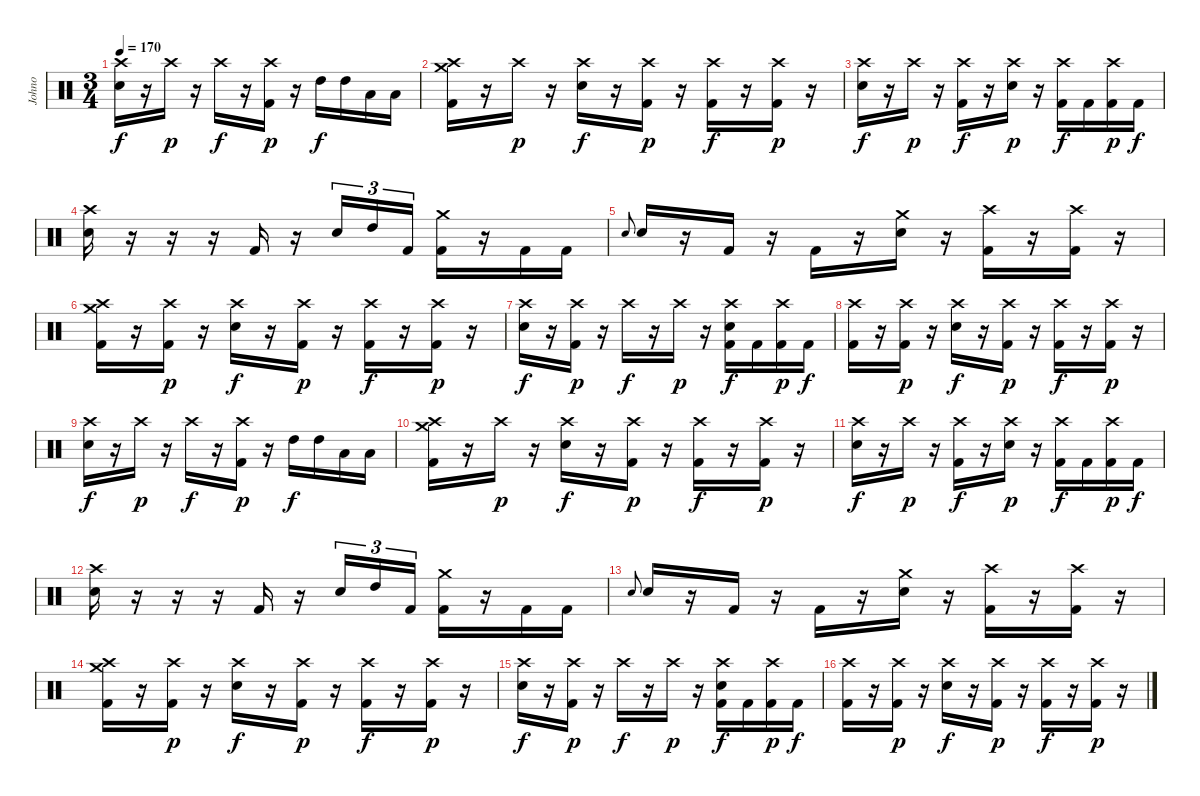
\track ("Johno" "Johno") {instrument percussion}
\staff {score}
\articulation defaults
\ts (3 4)
\tempo 170
\clef neutral
\ks c
("Crash high (hit)" "Electric Snare (hit)").16{dy f} r.16 "Crash high (hit)".16{dy p} r.16 "Crash high (hit)".16{dy f} r.16 ("Crash high (hit)" "Kick (hit) 2").16{dy p} r.16 "High Tom (hit)".16{dy f} "High Tom (hit)".16 "Low Floor Tom (hit)".16 "Low Floor Tom (hit)".16 |
("Crash medium (hit)" "Crash high (hit)" "Kick (hit) 2").16 r.16 "Crash high (hit)".16{dy p} r.16 ("Crash high (hit)" "Electric Snare (hit)").16{dy f} r.16 ("Crash high (hit)" "Kick (hit) 2").16{dy p} r.16 ("Crash high (hit)" "Kick (hit) 2").16{dy f} r.16 ("Crash high (hit)" "Kick (hit) 2").16{dy p} r.16 |
("Crash high (hit)" "Electric Snare (hit)").16{dy f} r.16 "Crash high (hit)".16{dy p} r.16 ("Crash high (hit)" "Kick (hit) 2").16{dy f} r.16 ("Crash high (hit)" "Electric Snare (hit)").16{dy p} r.16 ("Crash high (hit)" "Kick (hit) 2").16{dy f} "Kick (hit) 2".16 ("Crash high (hit)" "Kick (hit) 2").16{dy p} "Kick (hit) 2".16{dy f} |
("Crash high (hit)" "Electric Snare (hit)").16 r.16 r.16 r.16 "Kick (hit) 2".16 r.16 "Electric Snare (hit)".16{tu (3 2)} "High Tom (hit)".16{tu (3 2)} "Kick (hit) 2".16{tu (3 2)} ("Crash medium (hit)" "Kick (hit) 2").16 r.16 "Kick (hit) 2".16 "Kick (hit) 2".16 |
"Electric Snare (hit)".8{gr onbeat} "Electric Snare (hit)".16 r.16 "Kick (hit) 2".16 r.16 "Kick (hit) 2".16 r.16 ("Crash medium (hit)" "Electric Snare (hit)").16 r.16 ("Crash high (hit)" "Kick (hit) 2").16 r.16 ("Crash high (hit)" "Kick (hit) 2").16 r.16 |
("Crash medium (hit)" "Crash high (hit)" "Kick (hit) 2").16 r.16 ("Crash high (hit)" "Kick (hit) 2").16{dy p} r.16 ("Crash high (hit)" "Electric Snare (hit)").16{dy f} r.16 ("Crash high (hit)" "Kick (hit) 2").16{dy p} r.16 ("Crash high (hit)" "Kick (hit) 2").16{dy f} r.16 ("Crash high (hit)" "Kick (hit) 2").16{dy p} r.16 |
("Crash high (hit)" "Electric Snare (hit)").16{dy f} r.16 ("Crash high (hit)" "Kick (hit) 2").16{dy p} r.16 "Crash high (hit)".16{dy f} r.16 "Crash high (hit)".16{dy p} r.16 ("Crash high (hit)" "Electric Snare (hit)" "Kick (hit) 2").16{dy f} "Kick (hit) 2".16 ("Crash high (hit)" "Kick (hit) 2").16{dy p} "Kick (hit) 2".16{dy f} |
("Crash high (hit)" "Kick (hit) 2").16 r.16 ("Crash high (hit)" "Kick (hit) 2").16{dy p} r.16 ("Crash high (hit)" "Electric Snare (hit)").16{dy f} r.16 ("Crash high (hit)" "Kick (hit) 2").16{dy p} r.16 ("Crash high (hit)" "Kick (hit) 2").16{dy f} r.16 ("Crash high (hit)" "Kick (hit) 2").16{dy p} r.16 |
("Crash high (hit)" "Electric Snare (hit)").16{dy f} r.16 "Crash high (hit)".16{dy p} r.16 "Crash high (hit)".16{dy f} r.16 ("Crash high (hit)" "Kick (hit) 2").16{dy p} r.16 "High Tom (hit)".16{dy f} "High Tom (hit)".16 "Low Floor Tom (hit)".16 "Low Floor Tom (hit)".16 |
("Crash medium (hit)" "Crash high (hit)" "Kick (hit) 2").16 r.16 "Crash high (hit)".16{dy p} r.16 ("Crash high (hit)" "Electric Snare (hit)").16{dy f} r.16 ("Crash high (hit)" "Kick (hit) 2").16{dy p} r.16 ("Crash high (hit)" "Kick (hit) 2").16{dy f} r.16 ("Crash high (hit)" "Kick (hit) 2").16{dy p} r.16 |
("Crash high (hit)" "Electric Snare (hit)").16{dy f} r.16 "Crash high (hit)".16{dy p} r.16 ("Crash high (hit)" "Kick (hit) 2").16{dy f} r.16 ("Crash high (hit)" "Electric Snare (hit)").16{dy p} r.16 ("Crash high (hit)" "Kick (hit) 2").16{dy f} "Kick (hit) 2".16 ("Crash high (hit)" "Kick (hit) 2").16{dy p} "Kick (hit) 2".16{dy f} |
("Crash high (hit)" "Electric Snare (hit)").16 r.16 r.16 r.16 "Kick (hit) 2".16 r.16 "Electric Snare (hit)".16{tu (3 2)} "High Tom (hit)".16{tu (3 2)} "Kick (hit) 2".16{tu (3 2)} ("Crash medium (hit)" "Kick (hit) 2").16 r.16 "Kick (hit) 2".16 "Kick (hit) 2".16 |
"Electric Snare (hit)".8{gr onbeat} "Electric Snare (hit)".16 r.16 "Kick (hit) 2".16 r.16 "Kick (hit) 2".16 r.16 ("Crash medium (hit)" "Electric Snare (hit)").16 r.16 ("Crash high (hit)" "Kick (hit) 2").16 r.16 ("Crash high (hit)" "Kick (hit) 2").16 r.16 |
("Crash medium (hit)" "Crash high (hit)" "Kick (hit) 2").16 r.16 ("Crash high (hit)" "Kick (hit) 2").16{dy p} r.16 ("Crash high (hit)" "Electric Snare (hit)").16{dy f} r.16 ("Crash high (hit)" "Kick (hit) 2").16{dy p} r.16 ("Crash high (hit)" "Kick (hit) 2").16{dy f} r.16 ("Crash high (hit)" "Kick (hit) 2").16{dy p} r.16 |
("Crash high (hit)" "Electric Snare (hit)").16{dy f} r.16 ("Crash high (hit)" "Kick (hit) 2").16{dy p} r.16 "Crash high (hit)".16{dy f} r.16 "Crash high (hit)".16{dy p} r.16 ("Crash high (hit)" "Electric Snare (hit)" "Kick (hit) 2").16{dy f} "Kick (hit) 2".16 ("Crash high (hit)" "Kick (hit) 2").16{dy p} "Kick (hit) 2".16{dy f} |
("Crash high (hit)" "Kick (hit) 2").16 r.16 ("Crash high (hit)" "Kick (hit) 2").16{dy p} r.16 ("Crash high (hit)" "Electric Snare (hit)").16{dy f} r.16 ("Crash high (hit)" "Kick (hit) 2").16{dy p} r.16 ("Crash high (hit)" "Kick (hit) 2").16{dy f} r.16 ("Crash high (hit)" "Kick (hit) 2").16{dy p} r.16
